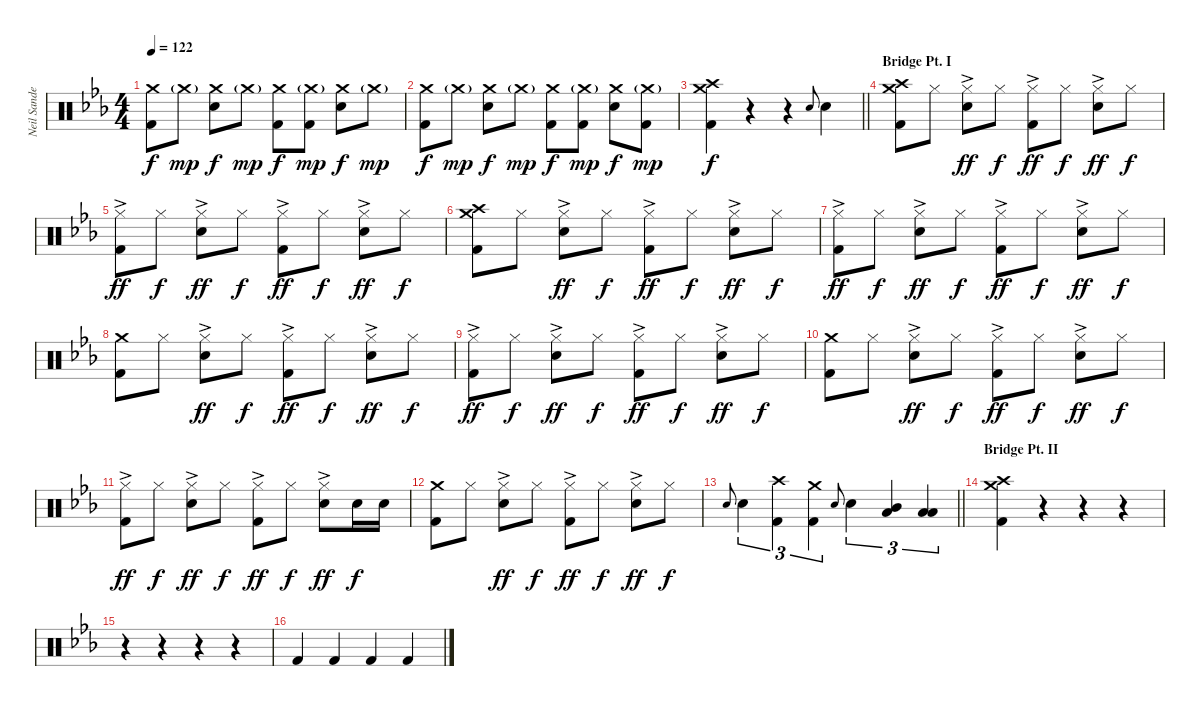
\track ("Neil Sanderson" "Neil Sande") {instrument percussion}
\staff {score}
\articulation defaults
\ts (4 4)
\tempo 122
\clef neutral
\ks cminor
("Crash medium (hit)" "Kick (hit) 2").8{dy f} "Crash medium (hit)"{g}.8{dy mp} ("Crash medium (hit)" "Electric Snare (hit)").8{dy f} "Crash medium (hit)"{g}.8{dy mp} ("Crash medium (hit)" "Kick (hit) 2").8{dy f} ("Crash medium (hit)"{g} "Kick (hit) 2").8{dy mp} ("Crash medium (hit)" "Electric Snare (hit)").8{dy f} "Crash medium (hit)"{g}.8{dy mp} |
("Crash medium (hit)" "Kick (hit) 2").8{dy f} "Crash medium (hit)"{g}.8{dy mp} ("Crash medium (hit)" "Electric Snare (hit)").8{dy f} "Crash medium (hit)"{g}.8{dy mp} ("Crash medium (hit)" "Kick (hit) 2").8{dy f} ("Crash medium (hit)"{g} "Kick (hit) 2").8{dy mp} ("Crash medium (hit)" "Electric Snare (hit)").8{dy f} ("Crash medium (hit)"{g} "Kick (hit) 2").8{dy mp} |
\barLineRight lightlight
("Crash medium (hit)" "Crash high (hit)" "Kick (hit) 2").4{dy f} r.4 r.4 "Electric Snare (hit)".8{gr onbeat} "Electric Snare (hit)".4 |
\section ("" "Bridge Pt. I")
("Crash medium (hit)" "Crash high (hit)" "Kick (hit) 2").8 "Hi-Hat (closed)".8 ("Hi-Hat (closed)"{ac} "Electric Snare (hit)").8{dy ff} "Hi-Hat (closed)".8{dy f} ("Hi-Hat (closed)"{ac} "Kick (hit) 2").8{dy ff} "Hi-Hat (closed)".8{dy f} ("Hi-Hat (closed)"{ac} "Electric Snare (hit)").8{dy ff} "Hi-Hat (closed)".8{dy f} |
("Hi-Hat (closed)"{ac} "Kick (hit) 2").8{dy ff} "Hi-Hat (closed)".8{dy f} ("Hi-Hat (closed)"{ac} "Electric Snare (hit)").8{dy ff} "Hi-Hat (closed)".8{dy f} ("Hi-Hat (closed)"{ac} "Kick (hit) 2").8{dy ff} "Hi-Hat (closed)".8{dy f} ("Hi-Hat (closed)"{ac} "Electric Snare (hit)").8{dy ff} "Hi-Hat (closed)".8{dy f} |
("Crash medium (hit)" "Crash high (hit)" "Kick (hit) 2").8 "Hi-Hat (closed)".8 ("Hi-Hat (closed)"{ac} "Electric Snare (hit)").8{dy ff} "Hi-Hat (closed)".8{dy f} ("Hi-Hat (closed)"{ac} "Kick (hit) 2").8{dy ff} "Hi-Hat (closed)".8{dy f} ("Hi-Hat (closed)"{ac} "Electric Snare (hit)").8{dy ff} "Hi-Hat (closed)".8{dy f} |
("Hi-Hat (closed)"{ac} "Kick (hit) 2").8{dy ff} "Hi-Hat (closed)".8{dy f} ("Hi-Hat (closed)"{ac} "Electric Snare (hit)").8{dy ff} "Hi-Hat (closed)".8{dy f} ("Hi-Hat (closed)"{ac} "Kick (hit) 2").8{dy ff} "Hi-Hat (closed)".8{dy f} ("Hi-Hat (closed)"{ac} "Electric Snare (hit)").8{dy ff} "Hi-Hat (closed)".8{dy f} |
("Crash medium (hit)" "Kick (hit) 2").8 "Hi-Hat (closed)".8 ("Hi-Hat (closed)"{ac} "Electric Snare (hit)").8{dy ff} "Hi-Hat (closed)".8{dy f} ("Hi-Hat (closed)"{ac} "Kick (hit) 2").8{dy ff} "Hi-Hat (closed)".8{dy f} ("Hi-Hat (closed)"{ac} "Electric Snare (hit)").8{dy ff} "Hi-Hat (closed)".8{dy f} |
("Hi-Hat (closed)"{ac} "Kick (hit) 2").8{dy ff} "Hi-Hat (closed)".8{dy f} ("Hi-Hat (closed)"{ac} "Electric Snare (hit)").8{dy ff} "Hi-Hat (closed)".8{dy f} ("Hi-Hat (closed)"{ac} "Kick (hit) 2").8{dy ff} "Hi-Hat (closed)".8{dy f} ("Hi-Hat (closed)"{ac} "Electric Snare (hit)").8{dy ff} "Hi-Hat (closed)".8{dy f} |
("Crash medium (hit)" "Kick (hit) 2").8 "Hi-Hat (closed)".8 ("Hi-Hat (closed)"{ac} "Electric Snare (hit)").8{dy ff} "Hi-Hat (closed)".8{dy f} ("Hi-Hat (closed)"{ac} "Kick (hit) 2").8{dy ff} "Hi-Hat (closed)".8{dy f} ("Hi-Hat (closed)"{ac} "Electric Snare (hit)").8{dy ff} "Hi-Hat (closed)".8{dy f} |
("Hi-Hat (closed)"{ac} "Kick (hit) 2").8{dy ff} "Hi-Hat (closed)".8{dy f} ("Hi-Hat (closed)"{ac} "Electric Snare (hit)").8{dy ff} "Hi-Hat (closed)".8{dy f} ("Hi-Hat (closed)"{ac} "Kick (hit) 2").8{dy ff} "Hi-Hat (closed)".8{dy f} ("Hi-Hat (closed)"{ac} "Electric Snare (hit)").8{dy ff} "Electric Snare (hit)".16{dy f} "Electric Snare (hit)".16 |
("Crash medium (hit)" "Kick (hit) 2").8 "Hi-Hat (closed)".8 ("Hi-Hat (closed)"{ac} "Electric Snare (hit)").8{dy ff} "Hi-Hat (closed)".8{dy f} ("Hi-Hat (closed)"{ac} "Kick (hit) 2").8{dy ff} "Hi-Hat (closed)".8{dy f} ("Hi-Hat (closed)"{ac} "Electric Snare (hit)").8{dy ff} "Hi-Hat (closed)".8{dy f} |
\barLineRight lightlight "Electric Snare (hit)".8{gr onbeat} "Electric Snare (hit)".4{tu (3 2)}
("Crash high (hit)" "Kick (hit) 2").4{tu (3 2)} ("Crash medium (hit)" "Kick (hit) 2").4{tu (3 2)} "Electric Snare (hit)".8{gr onbeat} "Electric Snare (hit)".4{tu (3 2)} ("Mid Tom (hit)" "Low Tom (hit)").4{tu (3 2)} ("Low Tom (hit)" "Low Floor Tom (hit)").4{tu (3 2)} |
\section ("" "Bridge Pt. II")
("Crash medium (hit)" "Crash high (hit)" "Kick (hit) 2").4 r.4 r.4 r.4 |
r.4 r.4 r.4 r.4 |
"Kick (hit) 2".4 "Kick (hit) 2".4 "Kick (hit) 2".4 "Kick (hit) 2".4
